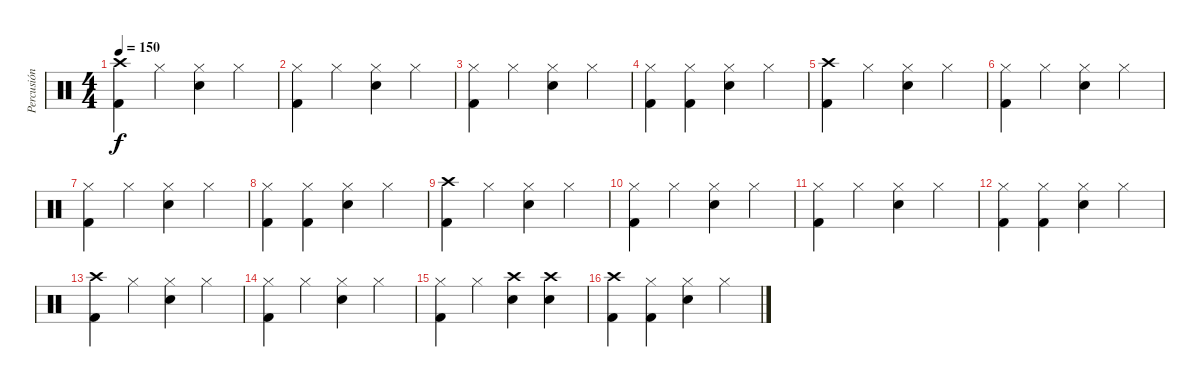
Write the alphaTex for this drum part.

\track ("Percusión" "Percusión") {instrument percussion}
\staff {score}
\articulation defaults
\ts (4 4)
\tempo 150
\clef neutral
\ks c
("Kick (hit) 2" "Crash high (hit)").4{dy f} "Hi-Hat (closed)".4 ("Snare (hit) 2" "Hi-Hat (closed)").4 "Hi-Hat (closed)".4 |
("Kick (hit) 2" "Hi-Hat (closed)").4 "Hi-Hat (closed)".4 ("Snare (hit) 2" "Hi-Hat (closed)").4 "Hi-Hat (closed)".4 |
("Kick (hit) 2" "Hi-Hat (closed)").4 "Hi-Hat (closed)".4 ("Snare (hit) 2" "Hi-Hat (closed)").4 "Hi-Hat (closed)".4 |
("Kick (hit) 2" "Hi-Hat (closed)").4 ("Kick (hit) 2" "Hi-Hat (closed)").4 ("Snare (hit) 2" "Hi-Hat (closed)").4 "Hi-Hat (closed)".4 |
("Kick (hit) 2" "Crash high (hit)").4 "Hi-Hat (closed)".4 ("Snare (hit) 2" "Hi-Hat (closed)").4 "Hi-Hat (closed)".4 |
("Kick (hit) 2" "Hi-Hat (closed)").4 "Hi-Hat (closed)".4 ("Snare (hit) 2" "Hi-Hat (closed)").4 "Hi-Hat (closed)".4 |
("Kick (hit) 2" "Hi-Hat (closed)").4 "Hi-Hat (closed)".4 ("Snare (hit) 2" "Hi-Hat (closed)").4 "Hi-Hat (closed)".4 |
("Kick (hit) 2" "Hi-Hat (closed)").4 ("Kick (hit) 2" "Hi-Hat (closed)").4 ("Snare (hit) 2" "Hi-Hat (closed)").4 "Hi-Hat (closed)".4 |
("Kick (hit) 2" "Crash high (hit)").4 "Hi-Hat (closed)".4 ("Snare (hit) 2" "Hi-Hat (closed)").4 "Hi-Hat (closed)".4 |
("Kick (hit) 2" "Hi-Hat (closed)").4 "Hi-Hat (closed)".4 ("Snare (hit) 2" "Hi-Hat (closed)").4 "Hi-Hat (closed)".4 |
("Kick (hit) 2" "Hi-Hat (closed)").4 "Hi-Hat (closed)".4 ("Snare (hit) 2" "Hi-Hat (closed)").4 "Hi-Hat (closed)".4 |
("Kick (hit) 2" "Hi-Hat (closed)").4 ("Kick (hit) 2" "Hi-Hat (closed)").4 ("Snare (hit) 2" "Hi-Hat (closed)").4 "Hi-Hat (closed)".4 |
("Kick (hit) 2" "Crash high (hit)").4 "Hi-Hat (closed)".4 ("Snare (hit) 2" "Hi-Hat (closed)").4 "Hi-Hat (closed)".4 |
("Kick (hit) 2" "Hi-Hat (closed)").4 "Hi-Hat (closed)".4 ("Snare (hit) 2" "Hi-Hat (closed)").4 "Hi-Hat (closed)".4 |
("Kick (hit) 2" "Hi-Hat (closed)").4 "Hi-Hat (closed)".4 ("Snare (hit) 2" "Crash high (hit)").4 ("Snare (hit) 2" "Crash high (hit)").4 |
("Kick (hit) 2" "Crash high (hit)").4 ("Kick (hit) 2" "Hi-Hat (closed)").4 ("Snare (hit) 2" "Hi-Hat (closed)").4 "Hi-Hat (closed)".4
